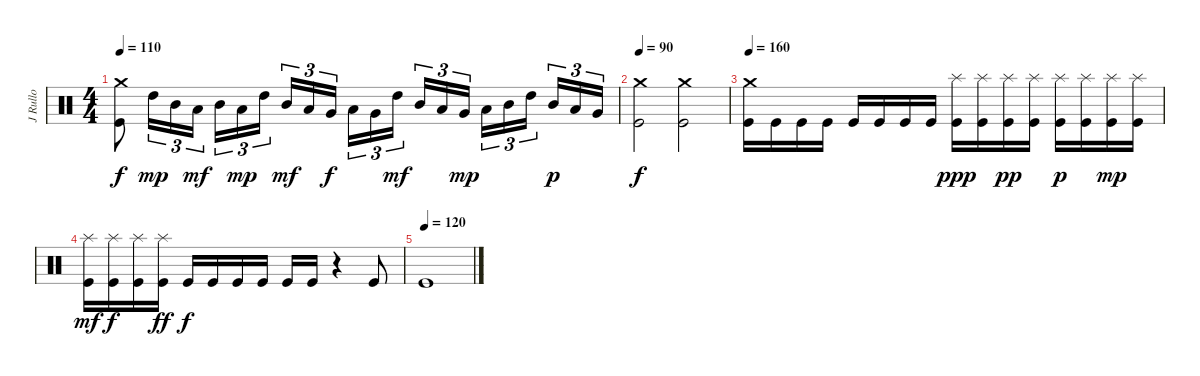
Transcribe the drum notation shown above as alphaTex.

\track ("J Rullo" "J Rullo") {instrument percussion}
\staff {score}
\articulation defaults
\ts (4 4)
\tempo 110
\clef neutral
\ks c
("Crash medium (hit)" "Kick (hit)").8{dy f} "High Tom (hit)".16{tu (3 2) dy mp} "Mid Tom (hit)".16{tu (3 2)} "Low Tom (hit)".16{tu (3 2) dy mf} "Mid Tom (hit)".16{tu (3 2)} "Low Tom (hit)".16{tu (3 2) dy mp} "High Tom (hit)".16{tu (3 2)} "Mid Tom (hit)".16{tu (3 2) dy mf} "Low Tom (hit)".16{tu (3 2)} "Very Low Tom (hit)".16{tu (3 2) dy f} "Low Tom (hit)".16{tu (3 2)} "Very Low Tom (hit)".16{tu (3 2)} "High Tom (hit)".16{tu (3 2) dy mf} "Mid Tom (hit)".16{tu (3 2)} "Low Tom (hit)".16{tu (3 2)} "Very Low Tom (hit)".16{tu (3 2) dy mp} "Low Tom (hit)".16{tu (3 2)} "Mid Tom (hit)".16{tu (3 2)} "High Tom (hit)".16{tu (3 2)} "Mid Tom (hit)".16{tu (3 2) dy p} "Low Tom (hit)".16{tu (3 2)} "Very Low Tom (hit)".16{tu (3 2)} |
\tempo 90
("Crash medium (hit)" "Kick (hit)").2{dy f} ("Crash medium (hit)" "Kick (hit)").2 |
\tempo 160
("Crash medium (hit)" "Kick (hit)").16 "Kick (hit)".16 "Kick (hit)".16 "Kick (hit)".16 "Kick (hit)".16 "Kick (hit)".16 "Kick (hit)".16 "Kick (hit)".16 ("Splash (hit)" "Kick (hit)").16{dy ppp} ("Splash (hit)" "Kick (hit)").16 ("Splash (hit)" "Kick (hit)").16{dy pp} ("Splash (hit)" "Kick (hit)").16 ("Splash (hit)" "Kick (hit)").16{dy p} ("Splash (hit)" "Kick (hit)").16 ("Splash (hit)" "Kick (hit)").16{dy mp} ("Splash (hit)" "Kick (hit)").16 |
("Splash (hit)" "Kick (hit)").16{dy mf} ("Splash (hit)" "Kick (hit)").16{dy f} ("Splash (hit)" "Kick (hit)").16 ("Splash (hit)" "Kick (hit)").16{dy ff} "Kick (hit)".16{dy f} "Kick (hit)".16 "Kick (hit)".16 "Kick (hit)".16 "Kick (hit)".16 "Kick (hit)".16 r.4 "Kick (hit)".8 |
\tempo (120)
"Kick (hit)".1
